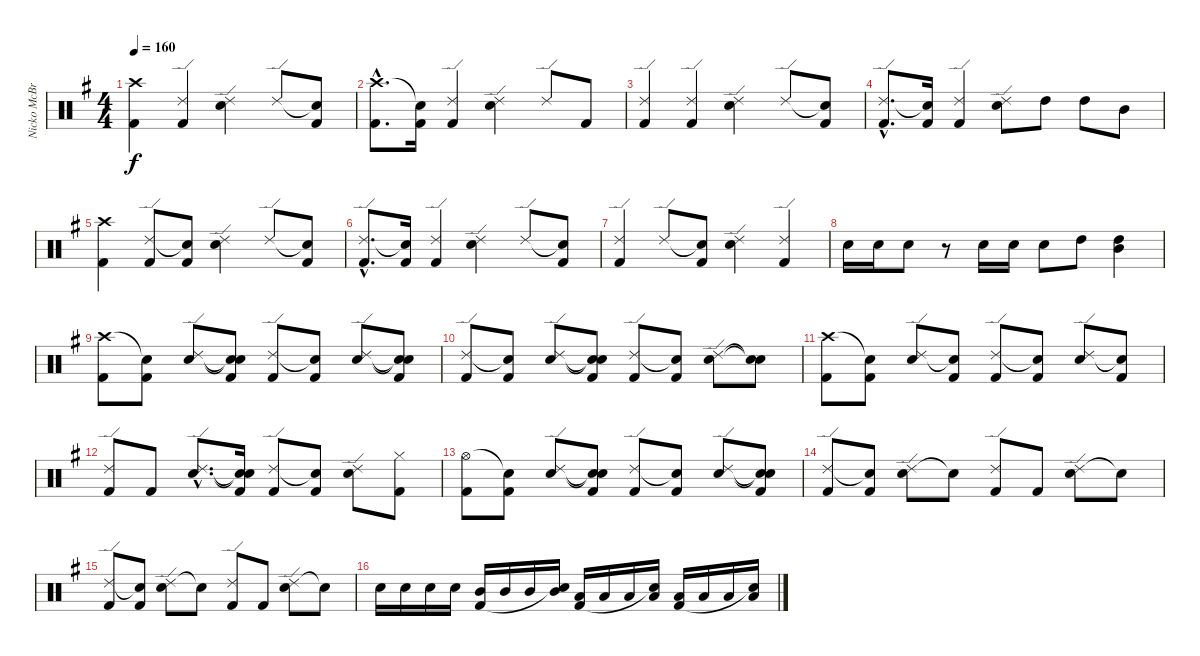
\track ("Nicko McBrain" "Nicko McBr") {instrument percussion}
\staff {score}
\articulation defaults
\ts (4 4)
\tempo 160
\clef neutral
\ks g
("Kick (hit) 2" "Crash high (hit)").4{dy f} ("Ride (edge) 2" "Kick (hit) 2").4 ("Ride (edge) 2" "Electric Snare (hit)").4 "Ride (edge) 2".8 ("Snare (hit)"{t} "Kick (hit) 2").8 |
("Crash high (hit)"{hac} "Kick (hit) 2"{hac}).8{d} ("Snare (hit)"{t} "Kick (hit) 2").16 ("Ride (edge) 2" "Kick (hit) 2").4 ("Ride (edge) 2" "Electric Snare (hit)").4 "Ride (edge) 2".8 "Kick (hit) 2".8 |
("Ride (edge) 2" "Kick (hit) 2").4 ("Ride (edge) 2" "Kick (hit) 2").4 ("Ride (edge) 2" "Electric Snare (hit)").4 "Ride (edge) 2".8 ("Snare (hit)"{t} "Kick (hit) 2").8 |
("Ride (edge) 2"{hac} "Kick (hit) 2"{hac}).8{d} ("Snare (hit)"{t} "Kick (hit) 2").16 ("Ride (edge) 2" "Kick (hit) 2").4 ("Ride (edge) 2" "Electric Snare (hit)").8 "High Tom (hit)".8 "High Tom (hit)".8 "Mid Tom (hit)".8 |
("Crash high (hit)" "Kick (hit) 2").4 ("Ride (edge) 2" "Kick (hit) 2").8 ("Snare (hit)"{t} "Kick (hit) 2").8 ("Ride (edge) 2" "Electric Snare (hit)").4 "Ride (edge) 2".8 ("Snare (hit)"{t} "Kick (hit) 2").8 |
("Ride (edge) 2"{hac} "Kick (hit) 2"{hac}).8{d} ("Snare (hit)"{t} "Kick (hit) 2").16 ("Ride (edge) 2" "Kick (hit) 2").4 ("Ride (edge) 2" "Electric Snare (hit)").4 "Ride (edge) 2".8 ("Snare (hit)"{t} "Kick (hit) 2").8 |
("Ride (edge) 2" "Kick (hit) 2").4 "Ride (edge) 2".8 ("Snare (hit)"{t} "Kick (hit) 2").8 ("Ride (edge) 2" "Electric Snare (hit)").4 ("Ride (edge) 2" "Kick (hit) 2").4 |
"Electric Snare (hit)".16 "Electric Snare (hit)".16 "Electric Snare (hit)".8 r.8 "Electric Snare (hit)".16 "Electric Snare (hit)".16 "Electric Snare (hit)".8 "High Tom (hit)".8 ("High Tom (hit)" "Mid Tom (hit)").4 |
("Crash high (hit)" "Kick (hit) 2").8 ("Snare (hit)"{t} "Kick (hit) 2").8 ("Ride (edge) 2" "Electric Snare (hit)").8 ("Snare (hit)"{t} "Snare (hit)"{t} "Kick (hit) 2").8 ("Ride (edge) 2" "Kick (hit) 2").8 ("Snare (hit)"{t} "Kick (hit) 2").8 ("Ride (edge) 2" "Electric Snare (hit)").8 ("Snare (hit)"{t} "Snare (hit)"{t} "Kick (hit) 2").8 |
("Ride (edge) 2" "Kick (hit) 2").8 ("Snare (hit)"{t} "Kick (hit) 2").8 ("Ride (edge) 2" "Electric Snare (hit)").8 ("Snare (hit)"{t} "Snare (hit)"{t} "Kick (hit) 2").8 ("Ride (edge) 2" "Kick (hit) 2").8 ("Snare (hit)"{t} "Kick (hit) 2").8 ("Ride (edge) 2" "Electric Snare (hit)").8 ("Snare (hit)"{t} "Snare (hit)"{t}).8 |
("Crash high (hit)" "Kick (hit) 2").8 ("Snare (hit)"{t} "Kick (hit) 2").8 ("Ride (edge) 2" "Electric Snare (hit)").8 ("Snare (hit)"{t} "Kick (hit) 2").8 ("Ride (edge) 2" "Kick (hit) 2").8 ("Snare (hit)"{t} "Kick (hit) 2").8 ("Ride (edge) 2" "Electric Snare (hit)").8 ("Snare (hit)"{t} "Kick (hit) 2").8 |
("Ride (edge) 2" "Kick (hit) 2").8 "Kick (hit) 2".8 ("Ride (edge) 2"{hac} "Electric Snare (hit)"{hac}).8{d} ("Snare (hit)"{t} "Snare (hit)"{t} "Kick (hit) 2").16 ("Ride (edge) 2" "Kick (hit) 2").8 ("Snare (hit)"{t} "Kick (hit) 2").8 ("Ride (edge) 2" "Electric Snare (hit)").8 ("Hi-Hat (closed)" "Kick (hit) 2").8 |
("Hi-Hat (open)" "Kick (hit) 2").8 ("Snare (hit)"{t} "Kick (hit) 2").8 ("Ride (edge) 2" "Electric Snare (hit)").8 ("Snare (hit)"{t} "Snare (hit)"{t} "Kick (hit) 2").8 ("Ride (edge) 2" "Kick (hit) 2").8 ("Snare (hit)"{t} "Kick (hit) 2").8 ("Ride (edge) 2" "Electric Snare (hit)").8 ("Snare (hit)"{t} "Snare (hit)"{t} "Kick (hit) 2").8 |
("Ride (edge) 2" "Kick (hit) 2").8 ("Snare (hit)"{t} "Kick (hit) 2").8 ("Ride (edge) 2" "Electric Snare (hit)").8 "Snare (hit)"{t}.8 ("Ride (edge) 2" "Kick (hit) 2").8 "Kick (hit) 2".8 ("Ride (edge) 2" "Electric Snare (hit)").8 "Snare (hit)"{t}.8 |
("Ride (edge) 2" "Kick (hit) 2").8 ("Snare (hit)"{t} "Kick (hit) 2").8 ("Ride (edge) 2" "Electric Snare (hit)").8 "Snare (hit)"{t}.8 ("Ride (edge) 2" "Kick (hit) 2").8 "Kick (hit) 2".8 ("Ride (edge) 2" "Electric Snare (hit)").8 "Snare (hit)"{t}.8 |
"Electric Snare (hit)".16 "Electric Snare (hit)".16 "Electric Snare (hit)".16 "Electric Snare (hit)".16 ("Mid Tom (hit)" "Kick (hit) 2").16 "Mid Tom (hit)".16 "Mid Tom (hit)".16 ("Mid Tom (hit)" "Snare (hit)"{t}).16 ("Low Tom (hit)" "Kick (hit) 2").16 "Low Tom (hit)".16 "Low Tom (hit)".16 ("Low Tom (hit)" "Snare (hit)"{t}).16 ("Low Floor Tom (hit)" "Kick (hit) 2").16 "Low Floor Tom (hit)".16 "Low Floor Tom (hit)".16 ("Low Floor Tom (hit)" "Snare (hit)"{t}).16
